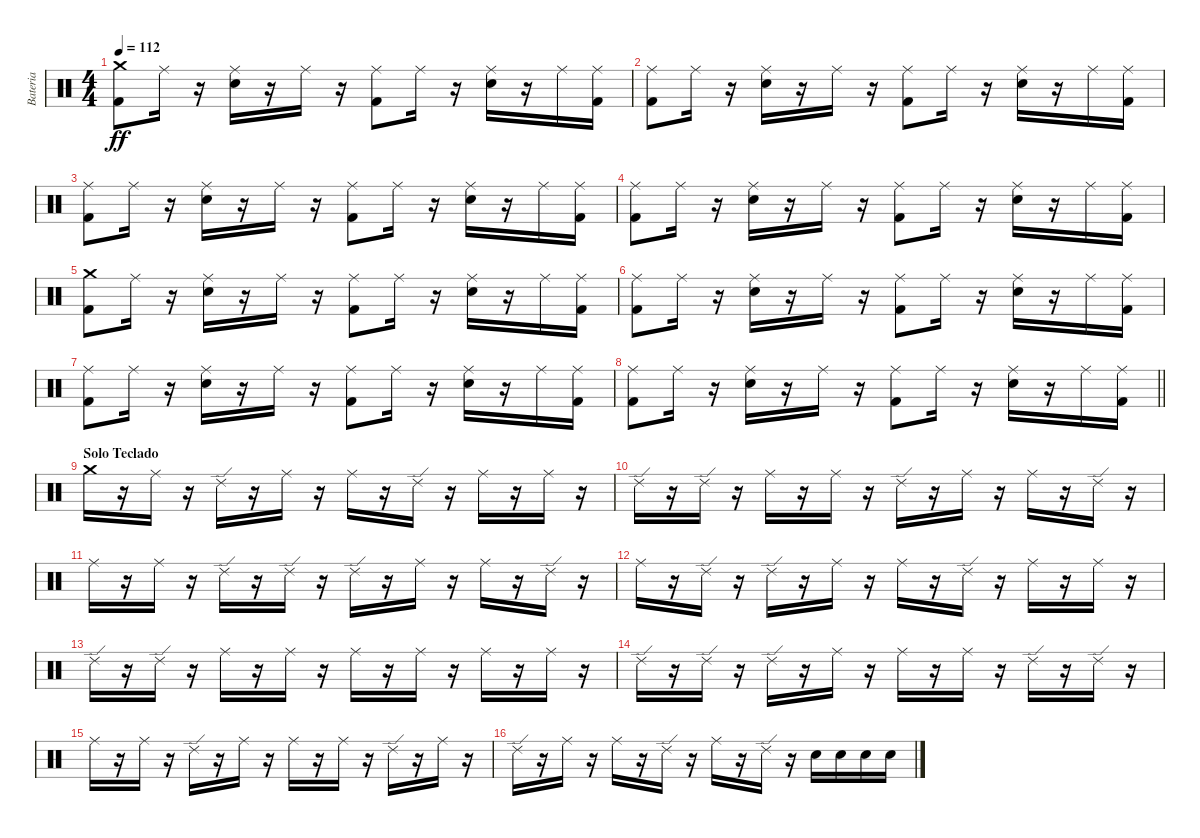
\track ("Bateria" "Bateria") {instrument percussion}
\staff {score}
\articulation defaults
\ts (4 4)
\tempo 112
\clef neutral
\ks c
("Crash medium (hit)" "Kick (hit) 2").8{dy ff} "Ride (middle)".16 r.16 ("Snare (hit) 2" "Ride (middle)").16 r.16 "Ride (middle)".16 r.16 ("Ride (middle)" "Kick (hit) 2").8 "Ride (middle)".16 r.16 ("Ride (middle)" "Snare (hit) 2").16 r.16 "Ride (middle)".16 ("Ride (middle)" "Kick (hit) 2").16 |
("Ride (middle)" "Kick (hit) 2").8 "Ride (middle)".16 r.16 ("Ride (middle)" "Snare (hit) 2").16 r.16 "Ride (middle)".16 r.16 ("Ride (middle)" "Kick (hit) 2").8 "Ride (middle)".16 r.16 ("Ride (middle)" "Snare (hit) 2").16 r.16 "Ride (middle)".16 ("Ride (middle)" "Kick (hit) 2").16 |
("Kick (hit) 2" "Ride (middle)").8 "Ride (middle)".16 r.16 ("Snare (hit) 2" "Ride (middle)").16 r.16 "Ride (middle)".16 r.16 ("Ride (middle)" "Kick (hit) 2").8 "Ride (middle)".16 r.16 ("Ride (middle)" "Snare (hit) 2").16 r.16 "Ride (middle)".16 ("Ride (middle)" "Kick (hit) 2").16 |
("Ride (middle)" "Kick (hit) 2").8 "Ride (middle)".16 r.16 ("Ride (middle)" "Snare (hit) 2").16 r.16 "Ride (middle)".16 r.16 ("Ride (middle)" "Kick (hit) 2").8 "Ride (middle)".16 r.16 ("Ride (middle)" "Snare (hit) 2").16 r.16 "Ride (middle)".16 ("Ride (middle)" "Kick (hit) 2").16 |
("Crash medium (hit)" "Kick (hit) 2").8 "Ride (middle)".16 r.16 ("Snare (hit) 2" "Ride (middle)").16 r.16 "Ride (middle)".16 r.16 ("Ride (middle)" "Kick (hit) 2").8 "Ride (middle)".16 r.16 ("Ride (middle)" "Snare (hit) 2").16 r.16 "Ride (middle)".16 ("Ride (middle)" "Kick (hit) 2").16 |
("Ride (middle)" "Kick (hit) 2").8 "Ride (middle)".16 r.16 ("Ride (middle)" "Snare (hit) 2").16 r.16 "Ride (middle)".16 r.16 ("Ride (middle)" "Kick (hit) 2").8 "Ride (middle)".16 r.16 ("Ride (middle)" "Snare (hit) 2").16 r.16 "Ride (middle)".16 ("Ride (middle)" "Kick (hit) 2").16 |
("Kick (hit) 2" "Ride (middle)").8 "Ride (middle)".16 r.16 ("Snare (hit) 2" "Ride (middle)").16 r.16 "Ride (middle)".16 r.16 ("Ride (middle)" "Kick (hit) 2").8 "Ride (middle)".16 r.16 ("Ride (middle)" "Snare (hit) 2").16 r.16 "Ride (middle)".16 ("Ride (middle)" "Kick (hit) 2").16 |
\barLineRight lightlight
("Ride (middle)" "Kick (hit) 2").8 "Ride (middle)".16 r.16 ("Ride (middle)" "Snare (hit) 2").16 r.16 "Ride (middle)".16 r.16 ("Ride (middle)" "Kick (hit) 2").8 "Ride (middle)".16 r.16 ("Ride (middle)" "Snare (hit) 2").16 r.16 "Ride (middle)".16 ("Ride (middle)" "Kick (hit) 2").16 |
\section ("" "Solo Teclado")
"Crash medium (hit)".16 r.16 "Ride (middle)".16 r.16 "Ride (edge) 2".16 r.16 "Ride (middle)".16 r.16 "Ride (middle)".16 r.16 "Ride (edge) 2".16 r.16 "Ride (middle)".16 r.16 "Ride (middle)".16 r.16 |
"Ride (edge) 2".16 r.16 "Ride (edge) 2".16 r.16 "Ride (middle)".16 r.16 "Ride (middle)".16 r.16 "Ride (edge) 2".16 r.16 "Ride (middle)".16 r.16 "Ride (middle)".16 r.16 "Ride (edge) 2".16 r.16 |
"Ride (middle)".16 r.16 "Ride (middle)".16 r.16 "Ride (edge) 2".16 r.16 "Ride (edge) 2".16 r.16 "Ride (edge) 2".16 r.16 "Ride (middle)".16 r.16 "Ride (middle)".16 r.16 "Ride (edge) 2".16 r.16 |
"Ride (middle)".16 r.16 "Ride (edge) 2".16 r.16 "Ride (edge) 2".16 r.16 "Ride (middle)".16 r.16 "Ride (middle)".16 r.16 "Ride (edge) 2".16 r.16 "Ride (middle)".16 r.16 "Ride (middle)".16 r.16 |
"Ride (edge) 2".16 r.16 "Ride (edge) 2".16 r.16 "Ride (middle)".16 r.16 "Ride (middle)".16 r.16 "Ride (middle)".16 r.16 "Ride (middle)".16 r.16 "Ride (middle)".16 r.16 "Ride (middle)".16 r.16 |
"Ride (edge) 2".16 r.16 "Ride (edge) 2".16 r.16 "Ride (edge) 2".16 r.16 "Ride (middle)".16 r.16 "Ride (middle)".16 r.16 "Ride (middle)".16 r.16 "Ride (edge) 2".16 r.16 "Ride (edge) 2".16 r.16 |
"Ride (middle)".16 r.16 "Ride (middle)".16 r.16 "Ride (edge) 2".16 r.16 "Ride (middle)".16 r.16 "Ride (middle)".16 r.16 "Ride (middle)".16 r.16 "Ride (edge) 2".16 r.16 "Ride (middle)".16 r.16 |
"Ride (edge) 2".16 r.16 "Ride (middle)".16 r.16 "Ride (middle)".16 r.16 "Ride (edge) 2".16 r.16 "Ride (middle)".16 r.16 "Ride (edge) 2".16 r.16 "Snare (hit) 2".16 "Snare (hit) 2".16 "Snare (hit) 2".16 "Snare (hit) 2".16
